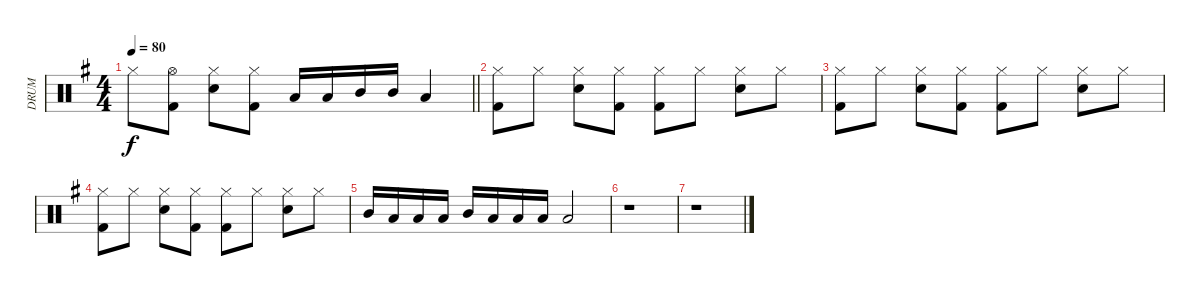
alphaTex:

\track ("DRUM" "DRUM") {instrument percussion}
\staff {score}
\articulation defaults
\ts (4 4)
\tempo 80
\clef neutral
\barLineRight lightlight
\ks g "Hi-Hat (closed)".8{dy f}
("Hi-Hat (open)" "Kick (hit) 2").8 ("Hi-Hat (closed)" "Snare (hit) 2").8 ("Hi-Hat (closed)" "Kick (hit) 2").8 "Low Tom (hit)".16 "Low Tom (hit)".16 "Mid Tom (hit)".16 "Mid Tom (hit)".16 "Low Floor Tom (hit)".4 |
("Hi-Hat (closed)" "Kick (hit) 2").8 "Hi-Hat (closed)".8 ("Hi-Hat (closed)" "Snare (hit) 2").8 ("Hi-Hat (closed)" "Kick (hit) 2").8 ("Hi-Hat (closed)" "Kick (hit) 2").8 "Hi-Hat (closed)".8 ("Hi-Hat (closed)" "Snare (hit) 2").8 "Hi-Hat (closed)".8 |
("Hi-Hat (closed)" "Kick (hit) 2").8 "Hi-Hat (closed)".8 ("Hi-Hat (closed)" "Snare (hit) 2").8 ("Hi-Hat (closed)" "Kick (hit) 2").8 ("Hi-Hat (closed)" "Kick (hit) 2").8 "Hi-Hat (closed)".8 ("Hi-Hat (closed)" "Snare (hit) 2").8 "Hi-Hat (closed)".8 |
("Hi-Hat (closed)" "Kick (hit) 2").8 "Hi-Hat (closed)".8 ("Hi-Hat (closed)" "Snare (hit) 2").8 ("Hi-Hat (closed)" "Kick (hit) 2").8 ("Hi-Hat (closed)" "Kick (hit) 2").8 "Hi-Hat (closed)".8 ("Hi-Hat (closed)" "Snare (hit) 2").8 "Hi-Hat (closed)".8 |
"Mid Tom (hit)".16 "Low Tom (hit)".16 "Low Tom (hit)".16 "Low Floor Tom (hit)".16 "Mid Tom (hit)".16 "Low Tom (hit)".16 "Low Tom (hit)".16 "Low Floor Tom (hit)".16 "Low Floor Tom (hit)".2 |
r.1 |
r.1
